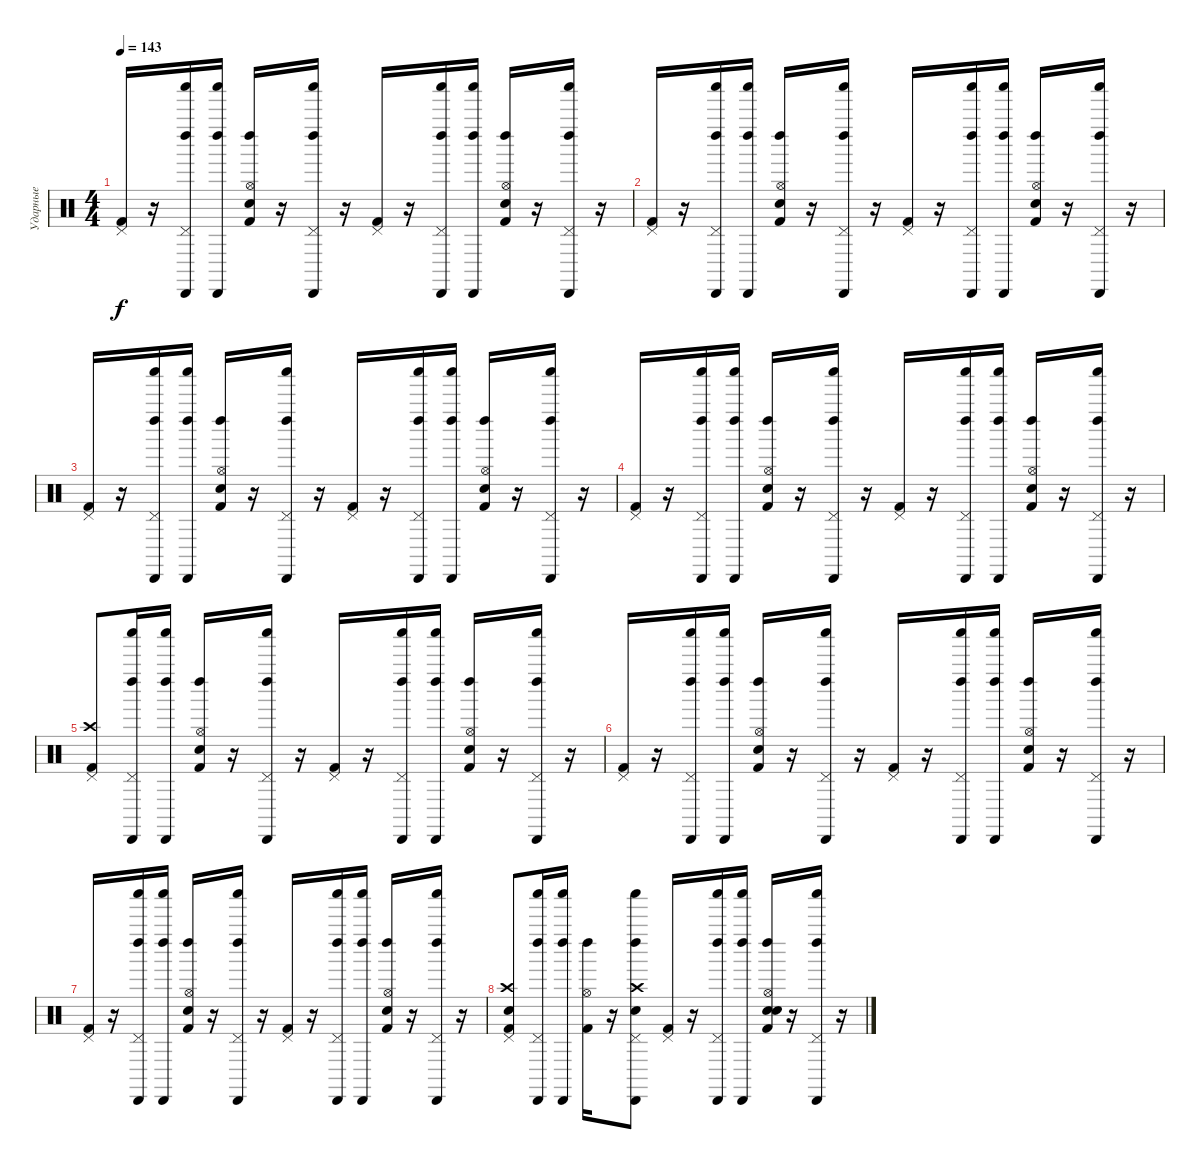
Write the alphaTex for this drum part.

\track ("Ударные" "Ударные") {instrument percussion}
\staff {score}
\articulation defaults
\ts (4 4)
\tempo 143
\clef neutral
\ks c
("Kick (hit) 2" "Pedal Hi-Hat (hit)").16{dy f} r.16 ("Pedal Hi-Hat (hit)" "Left Maraca (hit)" "Shaker (hit)" "Cabasa (hit)").16 ("Left Maraca (hit)" "Shaker (hit)" "Cabasa (hit)").16 ("Kick (hit) 2" "Snare (hit) 2" "Hi-Hat (open)" "Left Maraca (hit)").16 r.16 ("Pedal Hi-Hat (hit)" "Left Maraca (hit)" "Shaker (hit)" "Cabasa (hit)").16 r.16 ("Kick (hit) 2" "Pedal Hi-Hat (hit)").16 r.16 ("Pedal Hi-Hat (hit)" "Left Maraca (hit)" "Shaker (hit)" "Cabasa (hit)").16 ("Left Maraca (hit)" "Shaker (hit)" "Cabasa (hit)").16 ("Kick (hit) 2" "Snare (hit) 2" "Hi-Hat (open)" "Left Maraca (hit)").16 r.16 ("Pedal Hi-Hat (hit)" "Left Maraca (hit)" "Shaker (hit)" "Cabasa (hit)").16 r.16 |
("Kick (hit) 2" "Pedal Hi-Hat (hit)").16 r.16 ("Pedal Hi-Hat (hit)" "Left Maraca (hit)" "Shaker (hit)" "Cabasa (hit)").16 ("Left Maraca (hit)" "Shaker (hit)" "Cabasa (hit)").16 ("Snare (hit) 2" "Kick (hit) 2" "Hi-Hat (open)" "Left Maraca (hit)").16 r.16 ("Pedal Hi-Hat (hit)" "Left Maraca (hit)" "Shaker (hit)" "Cabasa (hit)").16 r.16 ("Kick (hit) 2" "Pedal Hi-Hat (hit)").16 r.16 ("Pedal Hi-Hat (hit)" "Left Maraca (hit)" "Shaker (hit)" "Cabasa (hit)").16 ("Left Maraca (hit)" "Shaker (hit)" "Cabasa (hit)").16 ("Snare (hit) 2" "Kick (hit) 2" "Hi-Hat (open)" "Left Maraca (hit)").16 r.16 ("Pedal Hi-Hat (hit)" "Left Maraca (hit)" "Shaker (hit)" "Cabasa (hit)").16 r.16 |
("Kick (hit) 2" "Pedal Hi-Hat (hit)").16 r.16 ("Pedal Hi-Hat (hit)" "Left Maraca (hit)" "Shaker (hit)" "Cabasa (hit)").16 ("Left Maraca (hit)" "Shaker (hit)" "Cabasa (hit)").16 ("Snare (hit) 2" "Kick (hit) 2" "Hi-Hat (open)" "Left Maraca (hit)").16 r.16 ("Pedal Hi-Hat (hit)" "Left Maraca (hit)" "Shaker (hit)" "Cabasa (hit)").16 r.16 ("Kick (hit) 2" "Pedal Hi-Hat (hit)").16 r.16 ("Pedal Hi-Hat (hit)" "Left Maraca (hit)" "Shaker (hit)" "Cabasa (hit)").16 ("Left Maraca (hit)" "Shaker (hit)" "Cabasa (hit)").16 ("Kick (hit) 2" "Snare (hit) 2" "Hi-Hat (open)" "Left Maraca (hit)").16 r.16 ("Pedal Hi-Hat (hit)" "Left Maraca (hit)" "Shaker (hit)" "Cabasa (hit)").16 r.16 |
("Kick (hit) 2" "Pedal Hi-Hat (hit)").16 r.16 ("Pedal Hi-Hat (hit)" "Left Maraca (hit)" "Shaker (hit)" "Cabasa (hit)").16 ("Left Maraca (hit)" "Shaker (hit)" "Cabasa (hit)").16 ("Kick (hit) 2" "Snare (hit) 2" "Hi-Hat (open)" "Left Maraca (hit)").16 r.16 ("Pedal Hi-Hat (hit)" "Left Maraca (hit)" "Shaker (hit)" "Cabasa (hit)").16 r.16 ("Kick (hit) 2" "Pedal Hi-Hat (hit)").16 r.16 ("Pedal Hi-Hat (hit)" "Left Maraca (hit)" "Shaker (hit)" "Cabasa (hit)").16 ("Left Maraca (hit)" "Shaker (hit)" "Cabasa (hit)").16 ("Snare (hit) 2" "Kick (hit) 2" "Hi-Hat (open)" "Left Maraca (hit)").16 r.16 ("Pedal Hi-Hat (hit)" "Left Maraca (hit)" "Shaker (hit)" "Cabasa (hit)").16 r.16 |
("Kick (hit) 2" "Crash high (hit)" "Pedal Hi-Hat (hit)").8 ("Pedal Hi-Hat (hit)" "Left Maraca (hit)" "Shaker (hit)" "Cabasa (hit)").16 ("Left Maraca (hit)" "Shaker (hit)" "Cabasa (hit)").16 ("Snare (hit) 2" "Kick (hit) 2" "Hi-Hat (open)" "Left Maraca (hit)").16 r.16 ("Pedal Hi-Hat (hit)" "Left Maraca (hit)" "Shaker (hit)" "Cabasa (hit)").16 r.16 ("Kick (hit) 2" "Pedal Hi-Hat (hit)").16 r.16 ("Pedal Hi-Hat (hit)" "Left Maraca (hit)" "Shaker (hit)" "Cabasa (hit)").16 ("Left Maraca (hit)" "Shaker (hit)" "Cabasa (hit)").16 ("Kick (hit) 2" "Snare (hit) 2" "Hi-Hat (open)" "Left Maraca (hit)").16 r.16 ("Pedal Hi-Hat (hit)" "Left Maraca (hit)" "Shaker (hit)" "Cabasa (hit)").16 r.16 |
("Kick (hit) 2" "Pedal Hi-Hat (hit)").16 r.16 ("Pedal Hi-Hat (hit)" "Left Maraca (hit)" "Shaker (hit)" "Cabasa (hit)").16 ("Left Maraca (hit)" "Shaker (hit)" "Cabasa (hit)").16 ("Snare (hit) 2" "Kick (hit) 2" "Hi-Hat (open)" "Left Maraca (hit)").16 r.16 ("Pedal Hi-Hat (hit)" "Left Maraca (hit)" "Shaker (hit)" "Cabasa (hit)").16 r.16 ("Kick (hit) 2" "Pedal Hi-Hat (hit)").16 r.16 ("Pedal Hi-Hat (hit)" "Left Maraca (hit)" "Shaker (hit)" "Cabasa (hit)").16 ("Left Maraca (hit)" "Shaker (hit)" "Cabasa (hit)").16 ("Snare (hit) 2" "Kick (hit) 2" "Hi-Hat (open)" "Left Maraca (hit)").16 r.16 ("Pedal Hi-Hat (hit)" "Left Maraca (hit)" "Shaker (hit)" "Cabasa (hit)").16 r.16 |
("Kick (hit) 2" "Pedal Hi-Hat (hit)").16 r.16 ("Pedal Hi-Hat (hit)" "Left Maraca (hit)" "Shaker (hit)" "Cabasa (hit)").16 ("Left Maraca (hit)" "Shaker (hit)" "Cabasa (hit)").16 ("Kick (hit) 2" "Snare (hit) 2" "Hi-Hat (open)" "Left Maraca (hit)").16 r.16 ("Pedal Hi-Hat (hit)" "Left Maraca (hit)" "Shaker (hit)" "Cabasa (hit)").16 r.16 ("Kick (hit) 2" "Pedal Hi-Hat (hit)").16 r.16 ("Pedal Hi-Hat (hit)" "Left Maraca (hit)" "Shaker (hit)" "Cabasa (hit)").16 ("Left Maraca (hit)" "Shaker (hit)" "Cabasa (hit)").16 ("Kick (hit) 2" "Snare (hit) 2" "Hi-Hat (open)" "Left Maraca (hit)").16 r.16 ("Pedal Hi-Hat (hit)" "Left Maraca (hit)" "Shaker (hit)" "Cabasa (hit)").16 r.16 |
("Crash high (hit)" "Snare (hit) 2" "Kick (hit) 2" "Pedal Hi-Hat (hit)").8 ("Pedal Hi-Hat (hit)" "Left Maraca (hit)" "Shaker (hit)" "Cabasa (hit)").16 ("Left Maraca (hit)" "Shaker (hit)" "Cabasa (hit)").16 ("Kick (hit) 2" "Hi-Hat (open)" "Left Maraca (hit)").16 r.16 ("Snare (hit) 2" "Crash high (hit)" "Pedal Hi-Hat (hit)" "Left Maraca (hit)" "Shaker (hit)" "Cabasa (hit)").8 ("Kick (hit) 2" "Pedal Hi-Hat (hit)").16 r.16 ("Pedal Hi-Hat (hit)" "Left Maraca (hit)" "Shaker (hit)" "Cabasa (hit)").16 ("Left Maraca (hit)" "Shaker (hit)" "Cabasa (hit)").16 ("Snare (hit) 2" "Kick (hit) 2" "Electric Snare (hit)" "Hi-Hat (open)" "Left Maraca (hit)").16 r.16 ("Pedal Hi-Hat (hit)" "Left Maraca (hit)" "Shaker (hit)" "Cabasa (hit)").16 r.16
